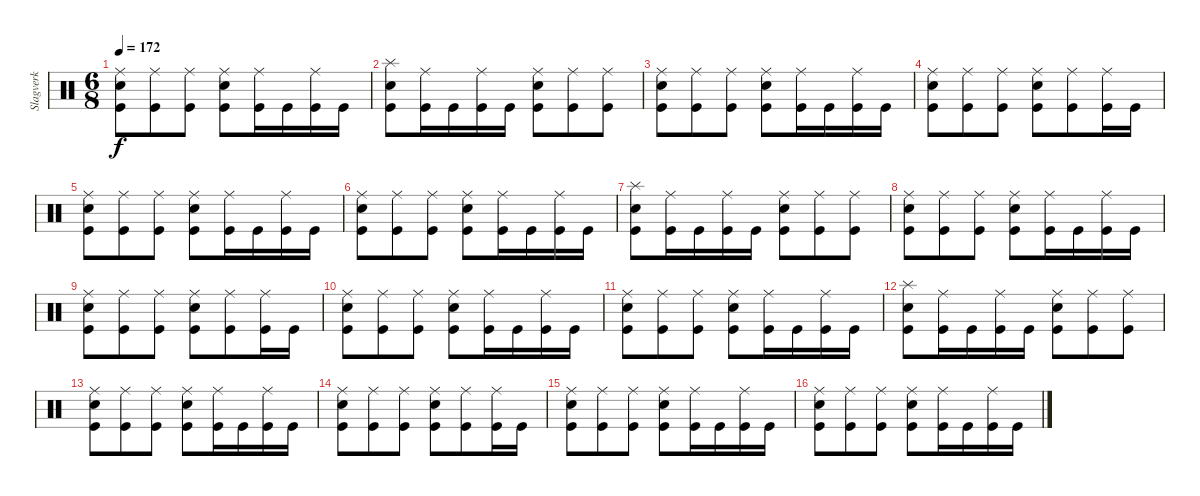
\track ("Slagverk" "Slagverk") {instrument percussion}
\staff {score}
\articulation defaults
\ts (6 8)
\tempo 172
\clef neutral
\ks c
("Ride (middle)" "Snare (hit) 2" "Kick (hit)").8{dy f} ("Ride (middle)" "Kick (hit)").8 ("Ride (middle)" "Kick (hit)").8 ("Ride (middle)" "Snare (hit) 2" "Kick (hit)").8 ("Ride (middle)" "Kick (hit)").16 "Kick (hit)".16 ("Ride (middle)" "Kick (hit)").16 "Kick (hit)".16 |
("Splash (hit)" "Snare (hit) 2" "Kick (hit)").8 ("Ride (middle)" "Kick (hit)").16 "Kick (hit)".16 ("Ride (middle)" "Kick (hit)").16 "Kick (hit)".16 ("Ride (middle)" "Snare (hit) 2" "Kick (hit)").8 ("Ride (middle)" "Kick (hit)").8 ("Ride (middle)" "Kick (hit)").8 |
("Ride (middle)" "Snare (hit) 2" "Kick (hit)").8 ("Ride (middle)" "Kick (hit)").8 ("Ride (middle)" "Kick (hit)").8 ("Ride (middle)" "Snare (hit) 2" "Kick (hit)").8 ("Ride (middle)" "Kick (hit)").16 "Kick (hit)".16 ("Ride (middle)" "Kick (hit)").16 "Kick (hit)".16 |
("Ride (middle)" "Snare (hit) 2" "Kick (hit)").8 ("Ride (middle)" "Kick (hit)").8 ("Ride (middle)" "Kick (hit)").8 ("Ride (middle)" "Snare (hit) 2" "Kick (hit)").8 ("Ride (middle)" "Kick (hit)").8 ("Ride (middle)" "Kick (hit)").16 "Kick (hit)".16 |
("Ride (middle)" "Snare (hit) 2" "Kick (hit)").8 ("Ride (middle)" "Kick (hit)").8 ("Ride (middle)" "Kick (hit)").8 ("Ride (middle)" "Snare (hit) 2" "Kick (hit)").8 ("Ride (middle)" "Kick (hit)").16 "Kick (hit)".16 ("Ride (middle)" "Kick (hit)").16 "Kick (hit)".16 |
("Ride (middle)" "Snare (hit) 2" "Kick (hit)").8 ("Ride (middle)" "Kick (hit)").8 ("Ride (middle)" "Kick (hit)").8 ("Ride (middle)" "Snare (hit) 2" "Kick (hit)").8 ("Ride (middle)" "Kick (hit)").16 "Kick (hit)".16 ("Ride (middle)" "Kick (hit)").16 "Kick (hit)".16 |
("Splash (hit)" "Snare (hit) 2" "Kick (hit)").8 ("Ride (middle)" "Kick (hit)").16 "Kick (hit)".16 ("Ride (middle)" "Kick (hit)").16 "Kick (hit)".16 ("Ride (middle)" "Snare (hit) 2" "Kick (hit)").8 ("Ride (middle)" "Kick (hit)").8 ("Ride (middle)" "Kick (hit)").8 |
("Ride (middle)" "Snare (hit) 2" "Kick (hit)").8 ("Ride (middle)" "Kick (hit)").8 ("Ride (middle)" "Kick (hit)").8 ("Ride (middle)" "Snare (hit) 2" "Kick (hit)").8 ("Ride (middle)" "Kick (hit)").16 "Kick (hit)".16 ("Ride (middle)" "Kick (hit)").16 "Kick (hit)".16 |
("Ride (middle)" "Snare (hit) 2" "Kick (hit)").8 ("Ride (middle)" "Kick (hit)").8 ("Ride (middle)" "Kick (hit)").8 ("Ride (middle)" "Snare (hit) 2" "Kick (hit)").8 ("Ride (middle)" "Kick (hit)").8 ("Ride (middle)" "Kick (hit)").16 "Kick (hit)".16 |
("Ride (middle)" "Snare (hit) 2" "Kick (hit)").8 ("Ride (middle)" "Kick (hit)").8 ("Ride (middle)" "Kick (hit)").8 ("Ride (middle)" "Snare (hit) 2" "Kick (hit)").8 ("Ride (middle)" "Kick (hit)").16 "Kick (hit)".16 ("Ride (middle)" "Kick (hit)").16 "Kick (hit)".16 |
("Ride (middle)" "Snare (hit) 2" "Kick (hit)").8 ("Ride (middle)" "Kick (hit)").8 ("Ride (middle)" "Kick (hit)").8 ("Ride (middle)" "Snare (hit) 2" "Kick (hit)").8 ("Ride (middle)" "Kick (hit)").16 "Kick (hit)".16 ("Ride (middle)" "Kick (hit)").16 "Kick (hit)".16 |
("Splash (hit)" "Snare (hit) 2" "Kick (hit)").8 ("Ride (middle)" "Kick (hit)").16 "Kick (hit)".16 ("Ride (middle)" "Kick (hit)").16 "Kick (hit)".16 ("Ride (middle)" "Snare (hit) 2" "Kick (hit)").8 ("Ride (middle)" "Kick (hit)").8 ("Ride (middle)" "Kick (hit)").8 |
("Ride (middle)" "Snare (hit) 2" "Kick (hit)").8 ("Ride (middle)" "Kick (hit)").8 ("Ride (middle)" "Kick (hit)").8 ("Ride (middle)" "Snare (hit) 2" "Kick (hit)").8 ("Ride (middle)" "Kick (hit)").16 "Kick (hit)".16 ("Ride (middle)" "Kick (hit)").16 "Kick (hit)".16 |
("Ride (middle)" "Snare (hit) 2" "Kick (hit)").8 ("Ride (middle)" "Kick (hit)").8 ("Ride (middle)" "Kick (hit)").8 ("Ride (middle)" "Snare (hit) 2" "Kick (hit)").8 ("Ride (middle)" "Kick (hit)").8 ("Ride (middle)" "Kick (hit)").16 "Kick (hit)".16 |
("Ride (middle)" "Snare (hit) 2" "Kick (hit)").8 ("Ride (middle)" "Kick (hit)").8 ("Ride (middle)" "Kick (hit)").8 ("Ride (middle)" "Snare (hit) 2" "Kick (hit)").8 ("Ride (middle)" "Kick (hit)").16 "Kick (hit)".16 ("Ride (middle)" "Kick (hit)").16 "Kick (hit)".16 |
("Ride (middle)" "Snare (hit) 2" "Kick (hit)").8 ("Ride (middle)" "Kick (hit)").8 ("Ride (middle)" "Kick (hit)").8 ("Ride (middle)" "Snare (hit) 2" "Kick (hit)").8 ("Ride (middle)" "Kick (hit)").16 "Kick (hit)".16 ("Ride (middle)" "Kick (hit)").16 "Kick (hit)".16
